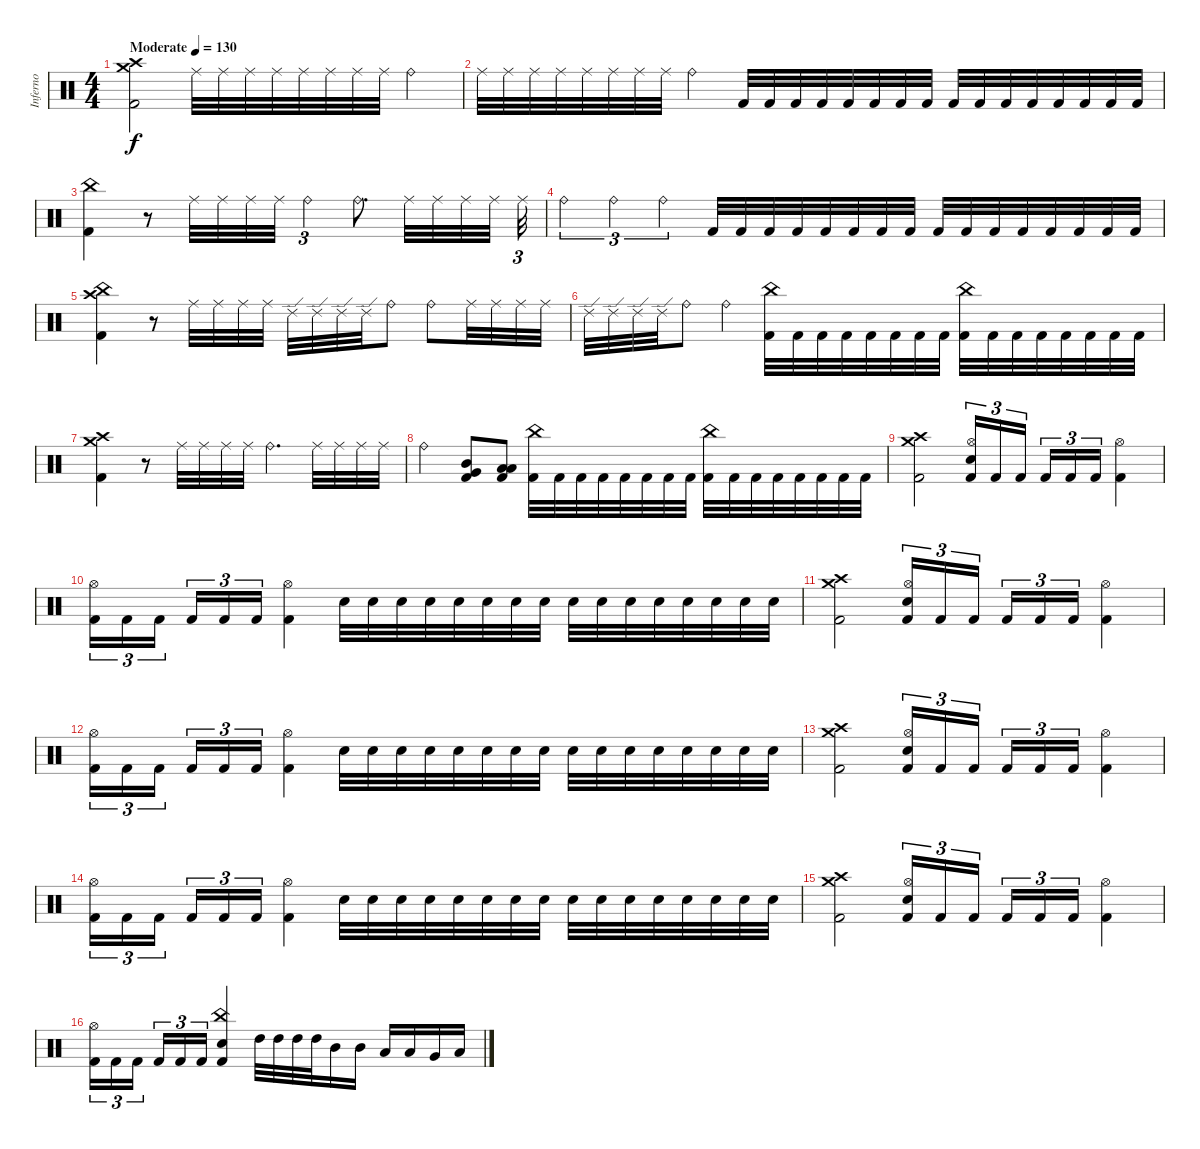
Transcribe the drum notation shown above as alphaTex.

\track ("Inferno" "Inferno") {instrument percussion}
\staff {score}
\articulation defaults
\ts (4 4)
\tempo (130 "Moderate")
\clef neutral
\ks c
("Crash high (hit)" "Crash medium (hit)" "Kick (hit) 2").2{dy f} "Ride (middle)".32 "Ride (middle)".32 "Ride (middle)".32 "Ride (middle)".32 "Ride (middle)".32 "Ride (middle)".32 "Ride (middle)".32 "Ride (middle)".32 "Ride (bell)".4 |
"Ride (middle)".32 "Ride (middle)".32 "Ride (middle)".32 "Ride (middle)".32 "Ride (middle)".32 "Ride (middle)".32 "Ride (middle)".32 "Ride (middle)".32 "Ride (bell)".4 "Kick (hit) 2".32 "Kick (hit) 2".32 "Kick (hit) 2".32 "Kick (hit) 2".32 "Kick (hit) 2".32 "Kick (hit) 2".32 "Kick (hit) 2".32 "Kick (hit) 2".32 "Kick (hit) 2".32 "Kick (hit) 2".32 "Kick (hit) 2".32 "Kick (hit) 2".32 "Kick (hit) 2".32 "Kick (hit) 2".32 "Kick (hit) 2".32 "Kick (hit) 2".32 |
("China (hit)" "Kick (hit) 2").4 r.8 "Ride (middle)".32 "Ride (middle)".32 "Ride (middle)".32 "Ride (middle)".32 "Ride (bell)".4{tu (3 2)} "Ride (bell)".8{d} "Ride (middle)".32 "Ride (middle)".32 "Ride (middle)".32 "Ride (middle)".32{beam splitsecondary} "Ride (middle)".32{tu (3 2)} |
"Ride (bell)".4{tu (3 2)} "Ride (bell)".4{tu (3 2)} "Ride (bell)".4{tu (3 2)} "Kick (hit) 2".32 "Kick (hit) 2".32 "Kick (hit) 2".32 "Kick (hit) 2".32 "Kick (hit) 2".32 "Kick (hit) 2".32 "Kick (hit) 2".32 "Kick (hit) 2".32 "Kick (hit) 2".32 "Kick (hit) 2".32 "Kick (hit) 2".32 "Kick (hit) 2".32 "Kick (hit) 2".32 "Kick (hit) 2".32 "Kick (hit) 2".32 "Kick (hit) 2".32 |
("Crash high (hit)" "China (hit)" "Kick (hit) 2").4 r.8 "Ride (middle)".32 "Ride (middle)".32 "Ride (middle)".32 "Ride (middle)".32 "Ride (edge) 2".32 "Ride (edge) 2".32 "Ride (edge) 2".32 "Ride (edge) 2".32 "Ride (bell)".8 "Ride (bell)".8 "Ride (middle)".32 "Ride (middle)".32 "Ride (middle)".32 "Ride (middle)".32 |
"Ride (edge) 2".32 "Ride (edge) 2".32 "Ride (edge) 2".32 "Ride (edge) 2".32 "Ride (bell)".8 "Ride (bell)".4 ("China (hit)" "Kick (hit) 2").32 "Kick (hit) 2".32 "Kick (hit) 2".32 "Kick (hit) 2".32 "Kick (hit) 2".32 "Kick (hit) 2".32 "Kick (hit) 2".32 "Kick (hit) 2".32 ("China (hit)" "Kick (hit) 2").32 "Kick (hit) 2".32 "Kick (hit) 2".32 "Kick (hit) 2".32 "Kick (hit) 2".32 "Kick (hit) 2".32 "Kick (hit) 2".32 "Kick (hit) 2".32 |
("Crash high (hit)" "Crash medium (hit)" "Kick (hit) 2").4 r.8 "Ride (middle)".32 "Ride (middle)".32 "Ride (middle)".32 "Ride (middle)".32 "Ride (bell)".4{d} "Ride (middle)".32 "Ride (middle)".32 "Ride (middle)".32 "Ride (middle)".32 |
"Ride (bell)".4 ("Mid Tom (hit)" "Very Low Tom (hit)" "Kick (hit) 2").8 ("Low Tom (hit)" "Low Floor Tom (hit)" "Kick (hit) 2").8 ("China (hit)" "Kick (hit) 2").32 "Kick (hit) 2".32 "Kick (hit) 2".32 "Kick (hit) 2".32 "Kick (hit) 2".32 "Kick (hit) 2".32 "Kick (hit) 2".32 "Kick (hit) 2".32 ("China (hit)" "Kick (hit) 2").32 "Kick (hit) 2".32 "Kick (hit) 2".32 "Kick (hit) 2".32 "Kick (hit) 2".32 "Kick (hit) 2".32 "Kick (hit) 2".32 "Kick (hit) 2".32 |
("Crash medium (hit)" "Crash high (hit)" "Kick (hit) 2").2 ("Hi-Hat (open)" "Snare (hit) 2" "Kick (hit) 2").16{tu (3 2)} "Kick (hit) 2".16{tu (3 2)} "Kick (hit) 2".16{tu (3 2) beam splitsecondary} "Kick (hit) 2".16{tu (3 2)} "Kick (hit) 2".16{tu (3 2)} "Kick (hit) 2".16{tu (3 2)} ("Hi-Hat (open)" "Kick (hit) 2").4 |
("Hi-Hat (open)" "Kick (hit) 2").16{tu (3 2)} "Kick (hit) 2".16{tu (3 2)} "Kick (hit) 2".16{tu (3 2) beam splitsecondary} "Kick (hit) 2".16{tu (3 2)} "Kick (hit) 2".16{tu (3 2)} "Kick (hit) 2".16{tu (3 2)} ("Hi-Hat (open)" "Kick (hit) 2").4 "Snare (hit) 2".32 "Snare (hit) 2".32 "Snare (hit) 2".32 "Snare (hit) 2".32 "Snare (hit) 2".32 "Snare (hit) 2".32 "Snare (hit) 2".32 "Snare (hit) 2".32 "Snare (hit) 2".32 "Snare (hit) 2".32 "Snare (hit) 2".32 "Snare (hit) 2".32 "Snare (hit) 2".32 "Snare (hit) 2".32 "Snare (hit) 2".32 "Snare (hit) 2".32 |
("Crash medium (hit)" "Crash high (hit)" "Kick (hit) 2").2 ("Hi-Hat (open)" "Snare (hit) 2" "Kick (hit) 2").16{tu (3 2)} "Kick (hit) 2".16{tu (3 2)} "Kick (hit) 2".16{tu (3 2) beam splitsecondary} "Kick (hit) 2".16{tu (3 2)} "Kick (hit) 2".16{tu (3 2)} "Kick (hit) 2".16{tu (3 2)} ("Hi-Hat (open)" "Kick (hit) 2").4 |
("Hi-Hat (open)" "Kick (hit) 2").16{tu (3 2)} "Kick (hit) 2".16{tu (3 2)} "Kick (hit) 2".16{tu (3 2) beam splitsecondary} "Kick (hit) 2".16{tu (3 2)} "Kick (hit) 2".16{tu (3 2)} "Kick (hit) 2".16{tu (3 2)} ("Hi-Hat (open)" "Kick (hit) 2").4 "Snare (hit) 2".32 "Snare (hit) 2".32 "Snare (hit) 2".32 "Snare (hit) 2".32 "Snare (hit) 2".32 "Snare (hit) 2".32 "Snare (hit) 2".32 "Snare (hit) 2".32 "Snare (hit) 2".32 "Snare (hit) 2".32 "Snare (hit) 2".32 "Snare (hit) 2".32 "Snare (hit) 2".32 "Snare (hit) 2".32 "Snare (hit) 2".32 "Snare (hit) 2".32 |
("Crash medium (hit)" "Crash high (hit)" "Kick (hit) 2").2 ("Hi-Hat (open)" "Snare (hit) 2" "Kick (hit) 2").16{tu (3 2)} "Kick (hit) 2".16{tu (3 2)} "Kick (hit) 2".16{tu (3 2) beam splitsecondary} "Kick (hit) 2".16{tu (3 2)} "Kick (hit) 2".16{tu (3 2)} "Kick (hit) 2".16{tu (3 2)} ("Hi-Hat (open)" "Kick (hit) 2").4 |
("Hi-Hat (open)" "Kick (hit) 2").16{tu (3 2)} "Kick (hit) 2".16{tu (3 2)} "Kick (hit) 2".16{tu (3 2) beam splitsecondary} "Kick (hit) 2".16{tu (3 2)} "Kick (hit) 2".16{tu (3 2)} "Kick (hit) 2".16{tu (3 2)} ("Hi-Hat (open)" "Kick (hit) 2").4 "Snare (hit) 2".32 "Snare (hit) 2".32 "Snare (hit) 2".32 "Snare (hit) 2".32 "Snare (hit) 2".32 "Snare (hit) 2".32 "Snare (hit) 2".32 "Snare (hit) 2".32 "Snare (hit) 2".32 "Snare (hit) 2".32 "Snare (hit) 2".32 "Snare (hit) 2".32 "Snare (hit) 2".32 "Snare (hit) 2".32 "Snare (hit) 2".32 "Snare (hit) 2".32 |
("Crash medium (hit)" "Crash high (hit)" "Kick (hit) 2").2 ("Hi-Hat (open)" "Snare (hit) 2" "Kick (hit) 2").16{tu (3 2)} "Kick (hit) 2".16{tu (3 2)} "Kick (hit) 2".16{tu (3 2) beam splitsecondary} "Kick (hit) 2".16{tu (3 2)} "Kick (hit) 2".16{tu (3 2)} "Kick (hit) 2".16{tu (3 2)} ("Hi-Hat (open)" "Kick (hit) 2").4 |
("Hi-Hat (open)" "Kick (hit) 2").16{tu (3 2)} "Kick (hit) 2".16{tu (3 2)} "Kick (hit) 2".16{tu (3 2) beam splitsecondary} "Kick (hit) 2".16{tu (3 2)} "Kick (hit) 2".16{tu (3 2)} "Kick (hit) 2".16{tu (3 2)} ("China (hit)" "Snare (hit) 2" "Kick (hit) 2").4 "High Tom (hit)".32 "High Tom (hit)".32 "High Tom (hit)".32 "High Tom (hit)".32 "Mid Tom (hit)".16 "Mid Tom (hit)".16 "Low Tom (hit)".16 "Low Tom (hit)".16 "Very Low Tom (hit)".16 "Low Floor Tom (hit)".16
